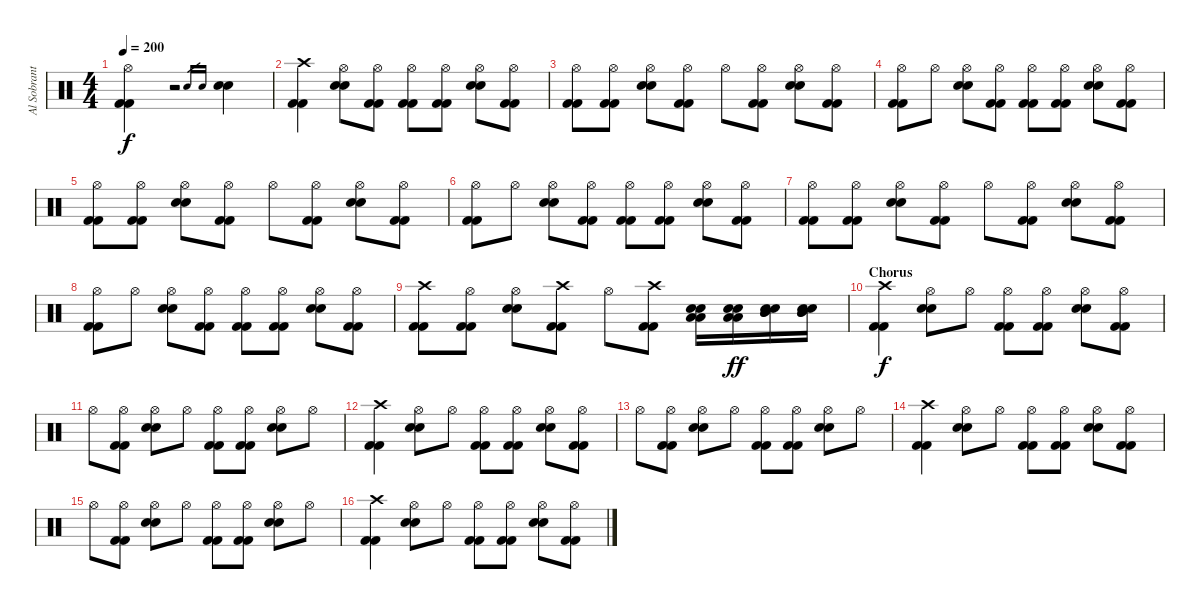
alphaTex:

\track ("Al Sobrante (Drums)" "Al Sobrant") {instrument percussion}
\staff {score}
\articulation defaults
\ts (4 4)
\tempo 200
\clef neutral
\ks c
("Kick (hit) 2" "Kick (hit) 2" "Hi-Hat (open)").4{dy f} r.2 "Electric Snare (hit)".16{gr} "Snare (hit) 2".16{gr} ("Electric Snare (hit)" "Electric Snare (hit)").4 |
("Kick (hit) 2" "Kick (hit) 2" "Crash high (hit)").4 ("Electric Snare (hit)" "Electric Snare (hit)" "Hi-Hat (open)").8 ("Kick (hit) 2" "Kick (hit) 2" "Hi-Hat (open)").8 ("Kick (hit) 2" "Kick (hit) 2" "Hi-Hat (open)").8 ("Kick (hit) 2" "Kick (hit) 2" "Hi-Hat (open)").8 ("Electric Snare (hit)" "Electric Snare (hit)" "Hi-Hat (open)").8 ("Kick (hit) 2" "Kick (hit) 2" "Hi-Hat (open)").8 |
("Kick (hit) 2" "Kick (hit) 2" "Hi-Hat (open)").8 ("Kick (hit) 2" "Kick (hit) 2" "Hi-Hat (open)").8 ("Electric Snare (hit)" "Electric Snare (hit)" "Hi-Hat (open)").8 ("Kick (hit) 2" "Kick (hit) 2" "Hi-Hat (open)").8 "Hi-Hat (open)".8 ("Kick (hit) 2" "Kick (hit) 2" "Hi-Hat (open)").8 ("Electric Snare (hit)" "Electric Snare (hit)" "Hi-Hat (open)").8 ("Kick (hit) 2" "Kick (hit) 2" "Hi-Hat (open)").8 |
("Kick (hit) 2" "Kick (hit) 2" "Hi-Hat (open)").8 "Hi-Hat (open)".8 ("Electric Snare (hit)" "Electric Snare (hit)" "Hi-Hat (open)").8 ("Kick (hit) 2" "Kick (hit) 2" "Hi-Hat (open)").8 ("Kick (hit) 2" "Kick (hit) 2" "Hi-Hat (open)").8 ("Kick (hit) 2" "Kick (hit) 2" "Hi-Hat (open)").8 ("Electric Snare (hit)" "Electric Snare (hit)" "Hi-Hat (open)").8 ("Kick (hit) 2" "Kick (hit) 2" "Hi-Hat (open)").8 |
("Kick (hit) 2" "Kick (hit) 2" "Hi-Hat (open)").8 ("Kick (hit) 2" "Kick (hit) 2" "Hi-Hat (open)").8 ("Electric Snare (hit)" "Electric Snare (hit)" "Hi-Hat (open)").8 ("Kick (hit) 2" "Kick (hit) 2" "Hi-Hat (open)").8 "Hi-Hat (open)".8 ("Kick (hit) 2" "Kick (hit) 2" "Hi-Hat (open)").8 ("Electric Snare (hit)" "Electric Snare (hit)" "Hi-Hat (open)").8 ("Kick (hit) 2" "Kick (hit) 2" "Hi-Hat (open)").8 |
("Kick (hit) 2" "Kick (hit) 2" "Hi-Hat (open)").8 "Hi-Hat (open)".8 ("Electric Snare (hit)" "Electric Snare (hit)" "Hi-Hat (open)").8 ("Kick (hit) 2" "Kick (hit) 2" "Hi-Hat (open)").8 ("Kick (hit) 2" "Kick (hit) 2" "Hi-Hat (open)").8 ("Kick (hit) 2" "Kick (hit) 2" "Hi-Hat (open)").8 ("Electric Snare (hit)" "Electric Snare (hit)" "Hi-Hat (open)").8 ("Kick (hit) 2" "Kick (hit) 2" "Hi-Hat (open)").8 |
("Kick (hit) 2" "Kick (hit) 2" "Hi-Hat (open)").8 ("Kick (hit) 2" "Kick (hit) 2" "Hi-Hat (open)").8 ("Electric Snare (hit)" "Electric Snare (hit)" "Hi-Hat (open)").8 ("Kick (hit) 2" "Kick (hit) 2" "Hi-Hat (open)").8 "Hi-Hat (open)".8 ("Kick (hit) 2" "Kick (hit) 2" "Hi-Hat (open)").8 ("Electric Snare (hit)" "Electric Snare (hit)" "Hi-Hat (open)").8 ("Kick (hit) 2" "Kick (hit) 2" "Hi-Hat (open)").8 |
("Kick (hit) 2" "Kick (hit) 2" "Hi-Hat (open)").8 "Hi-Hat (open)".8 ("Electric Snare (hit)" "Electric Snare (hit)" "Hi-Hat (open)").8 ("Kick (hit) 2" "Kick (hit) 2" "Hi-Hat (open)").8 ("Kick (hit) 2" "Kick (hit) 2" "Hi-Hat (open)").8 ("Kick (hit) 2" "Kick (hit) 2" "Hi-Hat (open)").8 ("Electric Snare (hit)" "Electric Snare (hit)" "Hi-Hat (open)").8 ("Kick (hit) 2" "Kick (hit) 2" "Hi-Hat (open)").8 |
("Kick (hit) 2" "Kick (hit) 2" "Crash high (hit)").8 ("Kick (hit) 2" "Kick (hit) 2" "Hi-Hat (open)").8 ("Electric Snare (hit)" "Electric Snare (hit)" "Hi-Hat (open)").8 ("Kick (hit) 2" "Kick (hit) 2" "Crash high (hit)").8 "Hi-Hat (open)".8 ("Kick (hit) 2" "Kick (hit) 2" "Crash high (hit)").8 ("Electric Snare (hit)" "Electric Snare (hit)" "Low Floor Tom (hit)" "Low Floor Tom (hit)").16 ("Electric Snare (hit)" "Electric Snare (hit)" "Low Floor Tom (hit)" "Low Floor Tom (hit)").16{dy ff} ("Electric Snare (hit)" "Electric Snare (hit)" "Mid Tom (hit)" "Mid Tom (hit)").16 ("Electric Snare (hit)" "Electric Snare (hit)" "Mid Tom (hit)" "Mid Tom (hit)").16 |
\section ("" "Chorus")
("Kick (hit) 2" "Kick (hit) 2" "Crash high (hit)").4{dy f} ("Electric Snare (hit)" "Electric Snare (hit)" "Hi-Hat (open)").8 "Hi-Hat (open)".8 ("Kick (hit) 2" "Kick (hit) 2" "Hi-Hat (open)").8 ("Kick (hit) 2" "Kick (hit) 2" "Hi-Hat (open)").8 ("Electric Snare (hit)" "Electric Snare (hit)" "Hi-Hat (open)").8 ("Kick (hit) 2" "Kick (hit) 2" "Hi-Hat (open)").8 |
"Hi-Hat (open)".8 ("Kick (hit) 2" "Kick (hit) 2" "Hi-Hat (open)").8 ("Electric Snare (hit)" "Electric Snare (hit)" "Hi-Hat (open)").8 "Hi-Hat (open)".8 ("Kick (hit) 2" "Kick (hit) 2" "Hi-Hat (open)").8 ("Kick (hit) 2" "Kick (hit) 2" "Hi-Hat (open)").8 ("Electric Snare (hit)" "Electric Snare (hit)" "Hi-Hat (open)").8 "Hi-Hat (open)".8 |
("Kick (hit) 2" "Kick (hit) 2" "Crash high (hit)").4 ("Electric Snare (hit)" "Electric Snare (hit)" "Hi-Hat (open)").8 "Hi-Hat (open)".8 ("Kick (hit) 2" "Kick (hit) 2" "Hi-Hat (open)").8 ("Kick (hit) 2" "Kick (hit) 2" "Hi-Hat (open)").8 ("Electric Snare (hit)" "Electric Snare (hit)" "Hi-Hat (open)").8 ("Kick (hit) 2" "Kick (hit) 2" "Hi-Hat (open)").8 |
"Hi-Hat (open)".8 ("Kick (hit) 2" "Kick (hit) 2" "Hi-Hat (open)").8 ("Electric Snare (hit)" "Electric Snare (hit)" "Hi-Hat (open)").8 "Hi-Hat (open)".8 ("Kick (hit) 2" "Kick (hit) 2" "Hi-Hat (open)").8 ("Kick (hit) 2" "Kick (hit) 2" "Hi-Hat (open)").8 ("Electric Snare (hit)" "Electric Snare (hit)" "Hi-Hat (open)").8 "Hi-Hat (open)".8 |
("Kick (hit) 2" "Kick (hit) 2" "Crash high (hit)").4 ("Electric Snare (hit)" "Electric Snare (hit)" "Hi-Hat (open)").8 "Hi-Hat (open)".8 ("Kick (hit) 2" "Kick (hit) 2" "Hi-Hat (open)").8 ("Kick (hit) 2" "Kick (hit) 2" "Hi-Hat (open)").8 ("Electric Snare (hit)" "Electric Snare (hit)" "Hi-Hat (open)").8 ("Kick (hit) 2" "Kick (hit) 2" "Hi-Hat (open)").8 |
"Hi-Hat (open)".8 ("Kick (hit) 2" "Kick (hit) 2" "Hi-Hat (open)").8 ("Electric Snare (hit)" "Electric Snare (hit)" "Hi-Hat (open)").8 "Hi-Hat (open)".8 ("Kick (hit) 2" "Kick (hit) 2" "Hi-Hat (open)").8 ("Kick (hit) 2" "Kick (hit) 2" "Hi-Hat (open)").8 ("Electric Snare (hit)" "Electric Snare (hit)" "Hi-Hat (open)").8 "Hi-Hat (open)".8 |
("Kick (hit) 2" "Kick (hit) 2" "Crash high (hit)").4 ("Electric Snare (hit)" "Electric Snare (hit)" "Hi-Hat (open)").8 "Hi-Hat (open)".8 ("Kick (hit) 2" "Kick (hit) 2" "Hi-Hat (open)").8 ("Kick (hit) 2" "Kick (hit) 2" "Hi-Hat (open)").8 ("Electric Snare (hit)" "Electric Snare (hit)" "Hi-Hat (open)").8 ("Kick (hit) 2" "Kick (hit) 2" "Hi-Hat (open)").8
